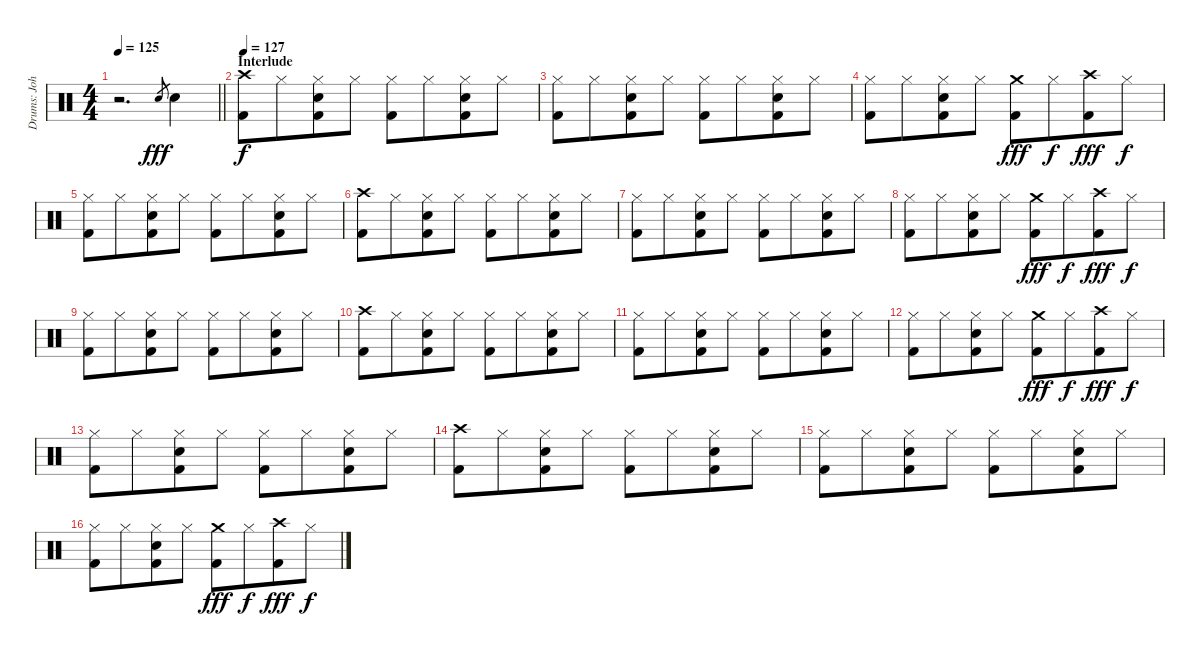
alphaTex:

\track ("Drums: John" "Drums: Joh") {instrument percussion}
\staff {score}
\articulation defaults
\ts (4 4)
\tempo 125
\clef neutral
\barLineRight lightlight
\ks c
r.2{d dy fff} "Snare (hit) 2".8{gr} "Electric Snare (hit)".4 |
\section ("" "Interlude")
\tempo 127
("Crash high (hit)" "Kick (hit) 2").8{dy f} "Hi-Hat (closed)".8{beam merge} ("Hi-Hat (closed)" "Snare (hit) 2" "Kick (hit) 2").8 "Hi-Hat (closed)".8 ("Hi-Hat (closed)" "Kick (hit) 2").8 "Hi-Hat (closed)".8{beam merge} ("Hi-Hat (closed)" "Snare (hit) 2" "Kick (hit) 2").8 "Hi-Hat (closed)".8 |
("Hi-Hat (closed)" "Kick (hit) 2").8 "Hi-Hat (closed)".8{beam merge} ("Hi-Hat (closed)" "Snare (hit) 2" "Kick (hit) 2").8 "Hi-Hat (closed)".8 ("Hi-Hat (closed)" "Kick (hit) 2").8 "Hi-Hat (closed)".8{beam merge} ("Hi-Hat (closed)" "Snare (hit) 2" "Kick (hit) 2").8 "Hi-Hat (closed)".8 |
("Hi-Hat (closed)" "Kick (hit) 2").8 "Hi-Hat (closed)".8{beam merge} ("Hi-Hat (closed)" "Snare (hit) 2" "Kick (hit) 2").8 "Hi-Hat (closed)".8 ("Crash medium (hit)" "Kick (hit) 2").8{dy fff} "Hi-Hat (closed)".8{dy f beam merge} ("Crash high (hit)" "Kick (hit) 2").8{dy fff} "Hi-Hat (closed)".8{dy f} |
("Hi-Hat (closed)" "Kick (hit) 2").8 "Hi-Hat (closed)".8{beam merge} ("Hi-Hat (closed)" "Snare (hit) 2" "Kick (hit) 2").8 "Hi-Hat (closed)".8 ("Hi-Hat (closed)" "Kick (hit) 2").8 "Hi-Hat (closed)".8{beam merge} ("Hi-Hat (closed)" "Snare (hit) 2" "Kick (hit) 2").8 "Hi-Hat (closed)".8 |
("Crash high (hit)" "Kick (hit) 2").8 "Hi-Hat (closed)".8{beam merge} ("Hi-Hat (closed)" "Snare (hit) 2" "Kick (hit) 2").8 "Hi-Hat (closed)".8 ("Hi-Hat (closed)" "Kick (hit) 2").8 "Hi-Hat (closed)".8{beam merge} ("Hi-Hat (closed)" "Snare (hit) 2" "Kick (hit) 2").8 "Hi-Hat (closed)".8 |
("Hi-Hat (closed)" "Kick (hit) 2").8 "Hi-Hat (closed)".8{beam merge} ("Hi-Hat (closed)" "Snare (hit) 2" "Kick (hit) 2").8 "Hi-Hat (closed)".8 ("Hi-Hat (closed)" "Kick (hit) 2").8 "Hi-Hat (closed)".8{beam merge} ("Hi-Hat (closed)" "Snare (hit) 2" "Kick (hit) 2").8 "Hi-Hat (closed)".8 |
("Hi-Hat (closed)" "Kick (hit) 2").8 "Hi-Hat (closed)".8{beam merge} ("Hi-Hat (closed)" "Snare (hit) 2" "Kick (hit) 2").8 "Hi-Hat (closed)".8 ("Crash medium (hit)" "Kick (hit) 2").8{dy fff} "Hi-Hat (closed)".8{dy f beam merge} ("Crash high (hit)" "Kick (hit) 2").8{dy fff} "Hi-Hat (closed)".8{dy f} |
("Hi-Hat (closed)" "Kick (hit) 2").8 "Hi-Hat (closed)".8{beam merge} ("Hi-Hat (closed)" "Snare (hit) 2" "Kick (hit) 2").8 "Hi-Hat (closed)".8 ("Hi-Hat (closed)" "Kick (hit) 2").8 "Hi-Hat (closed)".8{beam merge} ("Hi-Hat (closed)" "Snare (hit) 2" "Kick (hit) 2").8 "Hi-Hat (closed)".8 |
("Crash high (hit)" "Kick (hit) 2").8 "Hi-Hat (closed)".8{beam merge} ("Hi-Hat (closed)" "Snare (hit) 2" "Kick (hit) 2").8 "Hi-Hat (closed)".8 ("Hi-Hat (closed)" "Kick (hit) 2").8 "Hi-Hat (closed)".8{beam merge} ("Hi-Hat (closed)" "Snare (hit) 2" "Kick (hit) 2").8 "Hi-Hat (closed)".8 |
("Hi-Hat (closed)" "Kick (hit) 2").8 "Hi-Hat (closed)".8{beam merge} ("Hi-Hat (closed)" "Snare (hit) 2" "Kick (hit) 2").8 "Hi-Hat (closed)".8 ("Hi-Hat (closed)" "Kick (hit) 2").8 "Hi-Hat (closed)".8{beam merge} ("Hi-Hat (closed)" "Snare (hit) 2" "Kick (hit) 2").8 "Hi-Hat (closed)".8 |
("Hi-Hat (closed)" "Kick (hit) 2").8 "Hi-Hat (closed)".8{beam merge} ("Hi-Hat (closed)" "Snare (hit) 2" "Kick (hit) 2").8 "Hi-Hat (closed)".8 ("Crash medium (hit)" "Kick (hit) 2").8{dy fff} "Hi-Hat (closed)".8{dy f beam merge} ("Crash high (hit)" "Kick (hit) 2").8{dy fff} "Hi-Hat (closed)".8{dy f} |
("Hi-Hat (closed)" "Kick (hit) 2").8 "Hi-Hat (closed)".8{beam merge} ("Hi-Hat (closed)" "Snare (hit) 2" "Kick (hit) 2").8 "Hi-Hat (closed)".8 ("Hi-Hat (closed)" "Kick (hit) 2").8 "Hi-Hat (closed)".8{beam merge} ("Hi-Hat (closed)" "Snare (hit) 2" "Kick (hit) 2").8 "Hi-Hat (closed)".8 |
("Crash high (hit)" "Kick (hit) 2").8 "Hi-Hat (closed)".8{beam merge} ("Hi-Hat (closed)" "Snare (hit) 2" "Kick (hit) 2").8 "Hi-Hat (closed)".8 ("Hi-Hat (closed)" "Kick (hit) 2").8 "Hi-Hat (closed)".8{beam merge} ("Hi-Hat (closed)" "Snare (hit) 2" "Kick (hit) 2").8 "Hi-Hat (closed)".8 |
("Hi-Hat (closed)" "Kick (hit) 2").8 "Hi-Hat (closed)".8{beam merge} ("Hi-Hat (closed)" "Snare (hit) 2" "Kick (hit) 2").8 "Hi-Hat (closed)".8 ("Hi-Hat (closed)" "Kick (hit) 2").8 "Hi-Hat (closed)".8{beam merge} ("Hi-Hat (closed)" "Snare (hit) 2" "Kick (hit) 2").8 "Hi-Hat (closed)".8 |
("Hi-Hat (closed)" "Kick (hit) 2").8 "Hi-Hat (closed)".8{beam merge} ("Hi-Hat (closed)" "Snare (hit) 2" "Kick (hit) 2").8 "Hi-Hat (closed)".8 ("Crash medium (hit)" "Kick (hit) 2").8{dy fff} "Hi-Hat (closed)".8{dy f beam merge} ("Crash high (hit)" "Kick (hit) 2").8{dy fff} "Hi-Hat (closed)".8{dy f}
